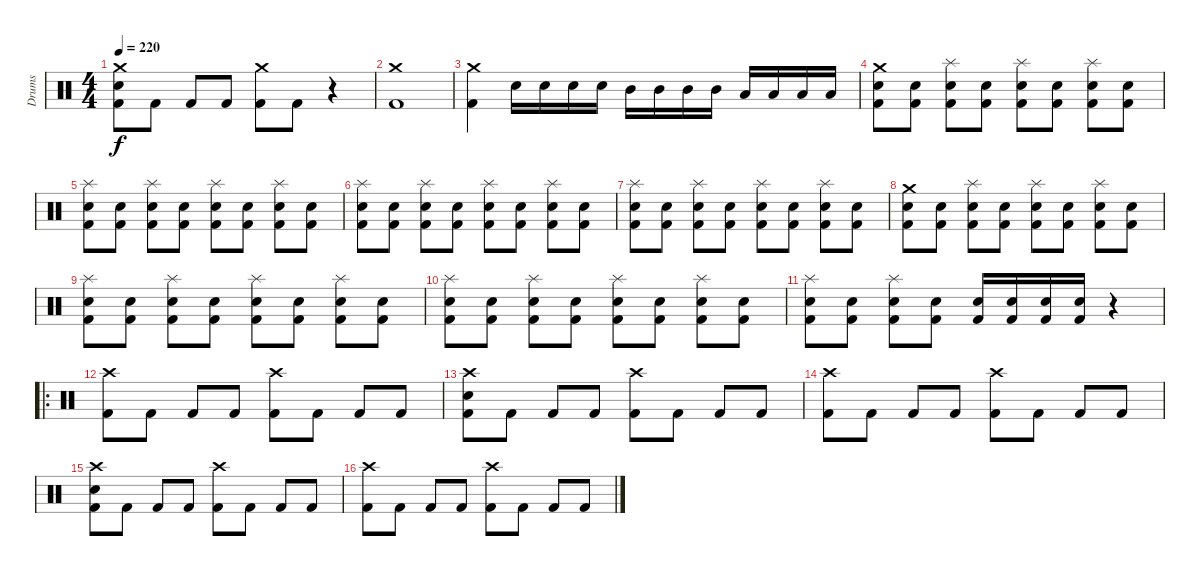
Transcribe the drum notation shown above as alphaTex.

\track ("Drums" "Drums") {instrument percussion}
\staff {score}
\articulation defaults
\ts (4 4)
\tempo 220
\clef neutral
\ks c
("Crash medium (hit)" "Electric Snare (hit)" "Kick (hit) 2").8{dy f} "Kick (hit) 2".8 "Kick (hit) 2".8 "Kick (hit) 2".8 ("Crash medium (hit)" "Kick (hit) 2").8 "Kick (hit) 2".8 r.4 |
("Crash medium (hit)" "Kick (hit) 2").1 |
("Crash medium (hit)" "Kick (hit) 2").4 "Electric Snare (hit)".16 "Electric Snare (hit)".16 "Electric Snare (hit)".16 "Electric Snare (hit)".16 "Mid Tom (hit)".16 "Mid Tom (hit)".16 "Mid Tom (hit)".16 "Mid Tom (hit)".16 "Low Tom (hit)".16 "Low Tom (hit)".16 "Low Tom (hit)".16 "Low Tom (hit)".16 |
("Crash medium (hit)" "Electric Snare (hit)" "Kick (hit) 2").8 ("Electric Snare (hit)" "Kick (hit) 2").8 ("Splash (hit)" "Electric Snare (hit)" "Kick (hit) 2").8 ("Electric Snare (hit)" "Kick (hit) 2").8 ("Splash (hit)" "Electric Snare (hit)" "Kick (hit) 2").8 ("Electric Snare (hit)" "Kick (hit) 2").8 ("Splash (hit)" "Electric Snare (hit)" "Kick (hit) 2").8 ("Electric Snare (hit)" "Kick (hit) 2").8 |
("Splash (hit)" "Electric Snare (hit)" "Kick (hit) 2").8 ("Electric Snare (hit)" "Kick (hit) 2").8 ("Splash (hit)" "Electric Snare (hit)" "Kick (hit) 2").8 ("Electric Snare (hit)" "Kick (hit) 2").8 ("Splash (hit)" "Electric Snare (hit)" "Kick (hit) 2").8 ("Electric Snare (hit)" "Kick (hit) 2").8 ("Splash (hit)" "Electric Snare (hit)" "Kick (hit) 2").8 ("Electric Snare (hit)" "Kick (hit) 2").8 |
("Splash (hit)" "Electric Snare (hit)" "Kick (hit) 2").8 ("Electric Snare (hit)" "Kick (hit) 2").8 ("Splash (hit)" "Electric Snare (hit)" "Kick (hit) 2").8 ("Electric Snare (hit)" "Kick (hit) 2").8 ("Splash (hit)" "Electric Snare (hit)" "Kick (hit) 2").8 ("Electric Snare (hit)" "Kick (hit) 2").8 ("Splash (hit)" "Electric Snare (hit)" "Kick (hit) 2").8 ("Electric Snare (hit)" "Kick (hit) 2").8 |
("Splash (hit)" "Electric Snare (hit)" "Kick (hit) 2").8 ("Electric Snare (hit)" "Kick (hit) 2").8 ("Splash (hit)" "Electric Snare (hit)" "Kick (hit) 2").8 ("Electric Snare (hit)" "Kick (hit) 2").8 ("Splash (hit)" "Electric Snare (hit)" "Kick (hit) 2").8 ("Electric Snare (hit)" "Kick (hit) 2").8 ("Splash (hit)" "Electric Snare (hit)" "Kick (hit) 2").8 ("Electric Snare (hit)" "Kick (hit) 2").8 |
("Crash medium (hit)" "Electric Snare (hit)" "Kick (hit) 2").8 ("Electric Snare (hit)" "Kick (hit) 2").8 ("Splash (hit)" "Electric Snare (hit)" "Kick (hit) 2").8 ("Electric Snare (hit)" "Kick (hit) 2").8 ("Splash (hit)" "Electric Snare (hit)" "Kick (hit) 2").8 ("Electric Snare (hit)" "Kick (hit) 2").8 ("Splash (hit)" "Electric Snare (hit)" "Kick (hit) 2").8 ("Electric Snare (hit)" "Kick (hit) 2").8 |
("Splash (hit)" "Electric Snare (hit)" "Kick (hit) 2").8 ("Electric Snare (hit)" "Kick (hit) 2").8 ("Splash (hit)" "Electric Snare (hit)" "Kick (hit) 2").8 ("Electric Snare (hit)" "Kick (hit) 2").8 ("Splash (hit)" "Electric Snare (hit)" "Kick (hit) 2").8 ("Electric Snare (hit)" "Kick (hit) 2").8 ("Splash (hit)" "Electric Snare (hit)" "Kick (hit) 2").8 ("Electric Snare (hit)" "Kick (hit) 2").8 |
("Splash (hit)" "Electric Snare (hit)" "Kick (hit) 2").8 ("Electric Snare (hit)" "Kick (hit) 2").8 ("Splash (hit)" "Electric Snare (hit)" "Kick (hit) 2").8 ("Electric Snare (hit)" "Kick (hit) 2").8 ("Splash (hit)" "Electric Snare (hit)" "Kick (hit) 2").8 ("Electric Snare (hit)" "Kick (hit) 2").8 ("Splash (hit)" "Electric Snare (hit)" "Kick (hit) 2").8 ("Electric Snare (hit)" "Kick (hit) 2").8 |
("Splash (hit)" "Electric Snare (hit)" "Kick (hit) 2").8 ("Electric Snare (hit)" "Kick (hit) 2").8 ("Splash (hit)" "Electric Snare (hit)" "Kick (hit) 2").8 ("Electric Snare (hit)" "Kick (hit) 2").8 ("Electric Snare (hit)" "Kick (hit) 2").16 ("Electric Snare (hit)" "Kick (hit) 2").16 ("Electric Snare (hit)" "Kick (hit) 2").16 ("Electric Snare (hit)" "Kick (hit) 2").16 r.4 |
\ro
("Crash high (hit)" "Kick (hit) 2").8 "Kick (hit) 2".8 "Kick (hit) 2".8 "Kick (hit) 2".8 ("Crash high (hit)" "Kick (hit) 2").8 "Kick (hit) 2".8 "Kick (hit) 2".8 "Kick (hit) 2".8 |
("Crash high (hit)" "Electric Snare (hit)" "Kick (hit) 2").8 "Kick (hit) 2".8 "Kick (hit) 2".8 "Kick (hit) 2".8 ("Crash high (hit)" "Kick (hit) 2").8 "Kick (hit) 2".8 "Kick (hit) 2".8 "Kick (hit) 2".8 |
("Crash high (hit)" "Kick (hit) 2").8 "Kick (hit) 2".8 "Kick (hit) 2".8 "Kick (hit) 2".8 ("Crash high (hit)" "Kick (hit) 2").8 "Kick (hit) 2".8 "Kick (hit) 2".8 "Kick (hit) 2".8 |
("Crash high (hit)" "Electric Snare (hit)" "Kick (hit) 2").8 "Kick (hit) 2".8 "Kick (hit) 2".8 "Kick (hit) 2".8 ("Crash high (hit)" "Kick (hit) 2").8 "Kick (hit) 2".8 "Kick (hit) 2".8 "Kick (hit) 2".8 |
("Crash high (hit)" "Kick (hit) 2").8 "Kick (hit) 2".8 "Kick (hit) 2".8 "Kick (hit) 2".8 ("Crash high (hit)" "Kick (hit) 2").8 "Kick (hit) 2".8 "Kick (hit) 2".8 "Kick (hit) 2".8
